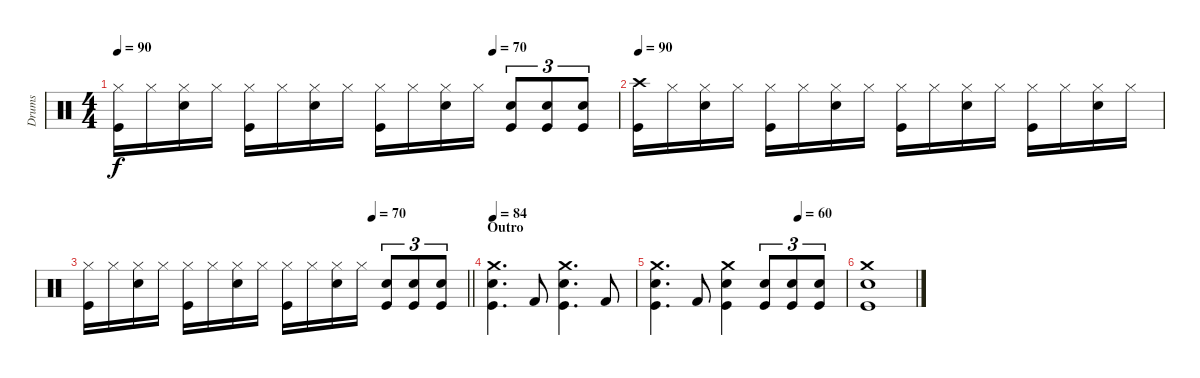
\track ("Drums" "Drums") {instrument percussion}
\staff {score}
\articulation defaults
\ts (4 4)
\tempo 90
\tempo (70 0.75)
\clef neutral
\ks c
("Hi-Hat (closed)" "Kick (hit)").16{dy f} "Hi-Hat (closed)".16 ("Hi-Hat (closed)" "Snare (hit) 2").16 "Hi-Hat (closed)".16 ("Hi-Hat (closed)" "Kick (hit)").16 "Hi-Hat (closed)".16 ("Hi-Hat (closed)" "Snare (hit) 2").16 "Hi-Hat (closed)".16 ("Hi-Hat (closed)" "Kick (hit)").16 "Hi-Hat (closed)".16 ("Hi-Hat (closed)" "Snare (hit) 2").16 "Hi-Hat (closed)".16 ("Snare (hit) 2" "Kick (hit)").8{tu (3 2)} ("Snare (hit) 2" "Kick (hit)").8{tu (3 2)} ("Snare (hit) 2" "Kick (hit)").8{tu (3 2)} |
\tempo 90
("Crash high (hit)" "Kick (hit)").16 "Hi-Hat (closed)".16 ("Hi-Hat (closed)" "Snare (hit) 2").16 "Hi-Hat (closed)".16 ("Hi-Hat (closed)" "Kick (hit)").16 "Hi-Hat (closed)".16 ("Hi-Hat (closed)" "Snare (hit) 2").16 "Hi-Hat (closed)".16 ("Hi-Hat (closed)" "Kick (hit)").16 "Hi-Hat (closed)".16 ("Hi-Hat (closed)" "Snare (hit) 2").16 "Hi-Hat (closed)".16 ("Hi-Hat (closed)" "Kick (hit)").16 "Hi-Hat (closed)".16 ("Hi-Hat (closed)" "Snare (hit) 2").16 "Hi-Hat (closed)".16 |
\tempo (70 0.75)
\barLineRight lightlight
("Hi-Hat (closed)" "Kick (hit)").16 "Hi-Hat (closed)".16 ("Hi-Hat (closed)" "Snare (hit) 2").16 "Hi-Hat (closed)".16 ("Hi-Hat (closed)" "Kick (hit)").16 "Hi-Hat (closed)".16 ("Hi-Hat (closed)" "Snare (hit) 2").16 "Hi-Hat (closed)".16 ("Hi-Hat (closed)" "Kick (hit)").16 "Hi-Hat (closed)".16 ("Hi-Hat (closed)" "Snare (hit) 2").16 "Hi-Hat (closed)".16 ("Snare (hit) 2" "Kick (hit)").8{tu (3 2)} ("Snare (hit) 2" "Kick (hit)").8{tu (3 2)} ("Snare (hit) 2" "Kick (hit)").8{tu (3 2)} |
\section ("" "Outro")
\tempo 84
("Crash medium (hit)" "Snare (hit) 2" "Kick (hit)").4{d} "Kick (hit) 2".8 ("Crash medium (hit)" "Snare (hit) 2" "Kick (hit)").4{d} "Kick (hit) 2".8 |
\tempo (60 0.75)
("Crash medium (hit)" "Snare (hit) 2" "Kick (hit)").4{d} "Kick (hit) 2".8 ("Crash medium (hit)" "Snare (hit) 2" "Kick (hit)").4 ("Snare (hit) 2" "Kick (hit)").8{tu (3 2)} ("Snare (hit) 2" "Kick (hit)").8{tu (3 2)} ("Snare (hit) 2" "Kick (hit)").8{tu (3 2)} |
("Crash medium (hit)" "Snare (hit) 2" "Kick (hit)").1
